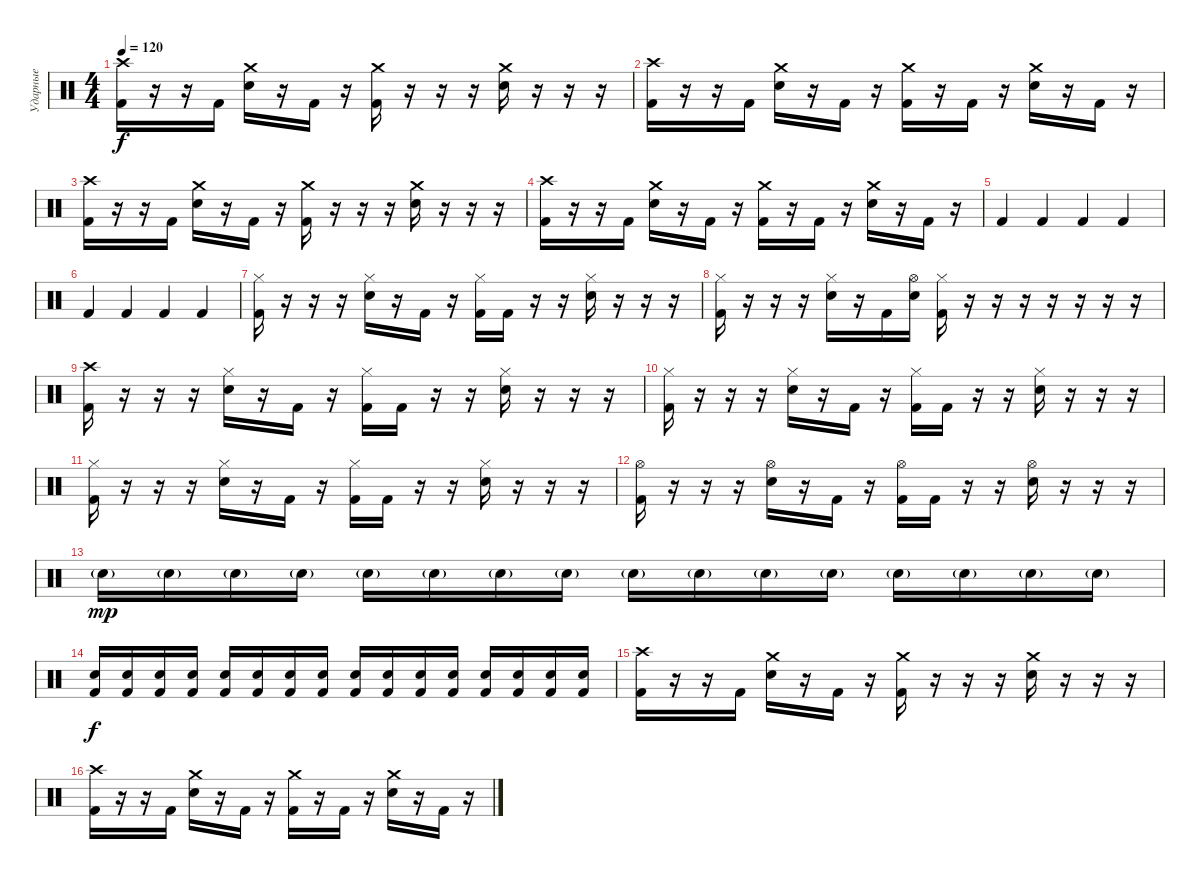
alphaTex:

\track ("Ударные" "Ударные") {instrument percussion}
\staff
\articulation defaults
\ts (4 4)
\tempo 120
\clef neutral
\ks c
("Crash high (hit)" "Kick (hit) 2").16{dy f} r.16 r.16 "Kick (hit) 2".16 ("Crash medium (hit)" "Electric Snare (hit)").16 r.16 "Kick (hit) 2".16 r.16 ("Crash medium (hit)" "Kick (hit) 2").16 r.16 r.16 r.16 ("Crash medium (hit)" "Electric Snare (hit)").16 r.16 r.16 r.16 |
("Crash high (hit)" "Kick (hit) 2").16 r.16 r.16 "Kick (hit) 2".16 ("Crash medium (hit)" "Electric Snare (hit)").16 r.16 "Kick (hit) 2".16 r.16 ("Crash medium (hit)" "Kick (hit) 2").16 r.16 "Kick (hit) 2".16 r.16 ("Crash medium (hit)" "Electric Snare (hit)").16 r.16 "Kick (hit) 2".16 r.16 |
("Crash high (hit)" "Kick (hit) 2").16 r.16 r.16 "Kick (hit) 2".16 ("Crash medium (hit)" "Electric Snare (hit)").16 r.16 "Kick (hit) 2".16 r.16 ("Crash medium (hit)" "Kick (hit) 2").16 r.16 r.16 r.16 ("Crash medium (hit)" "Electric Snare (hit)").16 r.16 r.16 r.16 |
("Crash high (hit)" "Kick (hit) 2").16 r.16 r.16 "Kick (hit) 2".16 ("Crash medium (hit)" "Electric Snare (hit)").16 r.16 "Kick (hit) 2".16 r.16 ("Crash medium (hit)" "Kick (hit) 2").16 r.16 "Kick (hit) 2".16 r.16 ("Crash medium (hit)" "Electric Snare (hit)").16 r.16 "Kick (hit) 2".16 r.16 |
"Kick (hit) 2".4 "Kick (hit) 2".4 "Kick (hit) 2".4 "Kick (hit) 2".4 |
"Kick (hit) 2".4 "Kick (hit) 2".4 "Kick (hit) 2".4 "Kick (hit) 2".4 |
("Hi-Hat (closed)" "Kick (hit) 2").16 r.16 r.16 r.16 ("Hi-Hat (closed)" "Electric Snare (hit)").16 r.16 "Kick (hit) 2".16 r.16 ("Hi-Hat (closed)" "Kick (hit) 2").16 "Kick (hit) 2".16 r.16 r.16 ("Hi-Hat (closed)" "Electric Snare (hit)").16 r.16 r.16 r.16 |
("Hi-Hat (closed)" "Kick (hit) 2").16 r.16 r.16 r.16 ("Hi-Hat (closed)" "Electric Snare (hit)").16 r.16 "Kick (hit) 2".16 ("Hi-Hat (open)" "Electric Snare (hit)").16 ("Hi-Hat (closed)" "Kick (hit) 2").16 r.16 r.16 r.16 r.16 r.16 r.16 r.16 |
("Crash high (hit)" "Kick (hit) 2").16 r.16 r.16 r.16 ("Hi-Hat (closed)" "Electric Snare (hit)").16 r.16 "Kick (hit) 2".16 r.16 ("Hi-Hat (closed)" "Kick (hit) 2").16 "Kick (hit) 2".16 r.16 r.16 ("Hi-Hat (closed)" "Electric Snare (hit)").16 r.16 r.16 r.16 |
("Hi-Hat (closed)" "Kick (hit) 2").16 r.16 r.16 r.16 ("Hi-Hat (closed)" "Electric Snare (hit)").16 r.16 "Kick (hit) 2".16 r.16 ("Hi-Hat (closed)" "Kick (hit) 2").16 "Kick (hit) 2".16 r.16 r.16 ("Hi-Hat (closed)" "Electric Snare (hit)").16 r.16 r.16 r.16 |
("Hi-Hat (closed)" "Kick (hit) 2").16 r.16 r.16 r.16 ("Hi-Hat (closed)" "Electric Snare (hit)").16 r.16 "Kick (hit) 2".16 r.16 ("Hi-Hat (closed)" "Kick (hit) 2").16 "Kick (hit) 2".16 r.16 r.16 ("Hi-Hat (closed)" "Electric Snare (hit)").16 r.16 r.16 r.16 |
("Hi-Hat (open)" "Kick (hit) 2").16 r.16 r.16 r.16 ("Hi-Hat (open)" "Electric Snare (hit)").16 r.16 "Kick (hit) 2".16 r.16 ("Hi-Hat (open)" "Kick (hit) 2").16 "Kick (hit) 2".16 r.16 r.16 ("Hi-Hat (open)" "Electric Snare (hit)").16 r.16 r.16 r.16 |
"Electric Snare (hit)"{g}.16{dy mp} "Electric Snare (hit)"{g}.16 "Electric Snare (hit)"{g}.16 "Electric Snare (hit)"{g}.16 "Electric Snare (hit)"{g}.16 "Electric Snare (hit)"{g}.16 "Electric Snare (hit)"{g}.16 "Electric Snare (hit)"{g}.16 "Electric Snare (hit)"{g}.16 "Electric Snare (hit)"{g}.16 "Electric Snare (hit)"{g}.16 "Electric Snare (hit)"{g}.16 "Electric Snare (hit)"{g}.16 "Electric Snare (hit)"{g}.16 "Electric Snare (hit)"{g}.16 "Electric Snare (hit)"{g}.16 |
("Electric Snare (hit)" "Kick (hit) 2").16{dy f} ("Electric Snare (hit)" "Kick (hit) 2").16 ("Electric Snare (hit)" "Kick (hit) 2").16 ("Electric Snare (hit)" "Kick (hit) 2").16 ("Electric Snare (hit)" "Kick (hit) 2").16 ("Electric Snare (hit)" "Kick (hit) 2").16 ("Electric Snare (hit)" "Kick (hit) 2").16 ("Electric Snare (hit)" "Kick (hit) 2").16 ("Electric Snare (hit)" "Kick (hit) 2").16 ("Electric Snare (hit)" "Kick (hit) 2").16 ("Electric Snare (hit)" "Kick (hit) 2").16 ("Electric Snare (hit)" "Kick (hit) 2").16 ("Electric Snare (hit)" "Kick (hit) 2").16 ("Electric Snare (hit)" "Kick (hit) 2").16 ("Electric Snare (hit)" "Kick (hit) 2").16 ("Electric Snare (hit)" "Kick (hit) 2").16 |
("Crash high (hit)" "Kick (hit) 2").16 r.16 r.16 "Kick (hit) 2".16 ("Crash medium (hit)" "Electric Snare (hit)").16 r.16 "Kick (hit) 2".16 r.16 ("Crash medium (hit)" "Kick (hit) 2").16 r.16 r.16 r.16 ("Crash medium (hit)" "Electric Snare (hit)").16 r.16 r.16 r.16 |
("Crash high (hit)" "Kick (hit) 2").16 r.16 r.16 "Kick (hit) 2".16 ("Crash medium (hit)" "Electric Snare (hit)").16 r.16 "Kick (hit) 2".16 r.16 ("Crash medium (hit)" "Kick (hit) 2").16 r.16 "Kick (hit) 2".16 r.16 ("Crash medium (hit)" "Electric Snare (hit)").16 r.16 "Kick (hit) 2".16 r.16
